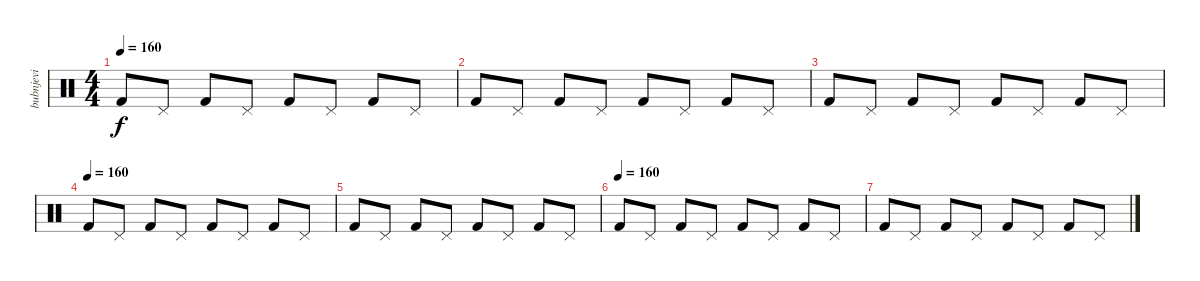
\track ("bubnjevi" "bubnjevi") {instrument percussion}
\staff {score}
\articulation defaults
\ts (4 4)
\tempo 160
\clef neutral
\ks c "Kick (hit) 2".8{dy f} "Pedal Hi-Hat (hit)".8 "Kick (hit) 2".8 "Pedal Hi-Hat (hit)".8 "Kick (hit) 2".8 "Pedal Hi-Hat (hit)".8 "Kick (hit) 2".8 "Pedal Hi-Hat (hit)".8
|
"Kick (hit) 2".8 "Pedal Hi-Hat (hit)".8 "Kick (hit) 2".8 "Pedal Hi-Hat (hit)".8 "Kick (hit) 2".8 "Pedal Hi-Hat (hit)".8 "Kick (hit) 2".8 "Pedal Hi-Hat (hit)".8 |
"Kick (hit) 2".8 "Pedal Hi-Hat (hit)".8 "Kick (hit) 2".8 "Pedal Hi-Hat (hit)".8 "Kick (hit) 2".8 "Pedal Hi-Hat (hit)".8 "Kick (hit) 2".8 "Pedal Hi-Hat (hit)".8 |
\tempo (160)
"Kick (hit) 2".8 "Pedal Hi-Hat (hit)".8 "Kick (hit) 2".8 "Pedal Hi-Hat (hit)".8 "Kick (hit) 2".8 "Pedal Hi-Hat (hit)".8 "Kick (hit) 2".8 "Pedal Hi-Hat (hit)".8 |
"Kick (hit) 2".8 "Pedal Hi-Hat (hit)".8 "Kick (hit) 2".8 "Pedal Hi-Hat (hit)".8 "Kick (hit) 2".8 "Pedal Hi-Hat (hit)".8 "Kick (hit) 2".8 "Pedal Hi-Hat (hit)".8 |
\tempo 165
\tempo (160)
"Kick (hit) 2".8 "Pedal Hi-Hat (hit)".8 "Kick (hit) 2".8 "Pedal Hi-Hat (hit)".8 "Kick (hit) 2".8 "Pedal Hi-Hat (hit)".8 "Kick (hit) 2".8 "Pedal Hi-Hat (hit)".8 |
"Kick (hit) 2".8 "Pedal Hi-Hat (hit)".8 "Kick (hit) 2".8 "Pedal Hi-Hat (hit)".8 "Kick (hit) 2".8 "Pedal Hi-Hat (hit)".8 "Kick (hit) 2".8 "Pedal Hi-Hat (hit)".8
